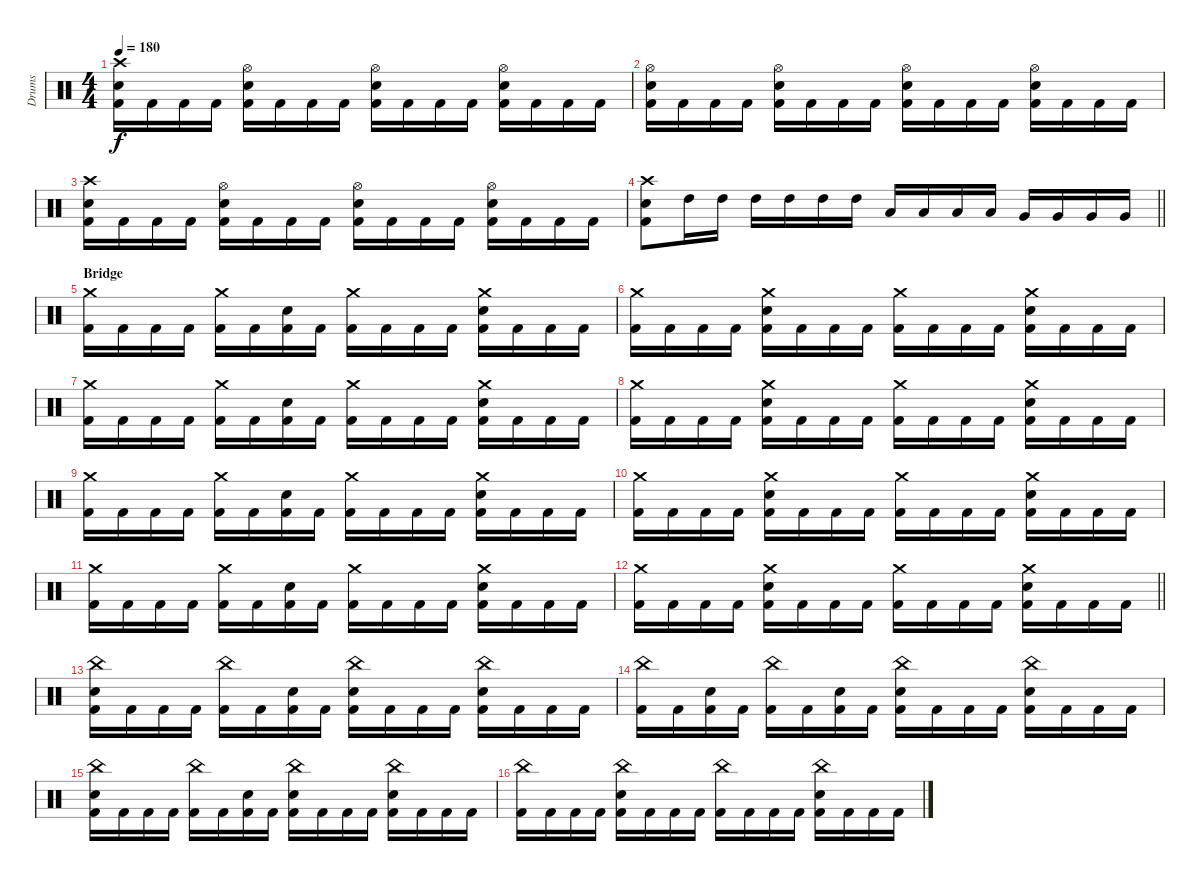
\track ("Drums" "Drums") {instrument percussion}
\staff {score}
\articulation defaults
\ts (4 4)
\tempo 180
\clef neutral
\ks c
("Crash high (hit)" "Electric Snare (hit)" "Kick (hit) 2").16{dy f} "Kick (hit) 2".16 "Kick (hit) 2".16 "Kick (hit) 2".16 ("Hi-Hat (open)" "Electric Snare (hit)" "Kick (hit) 2").16 "Kick (hit) 2".16 "Kick (hit) 2".16 "Kick (hit) 2".16 ("Hi-Hat (open)" "Electric Snare (hit)" "Kick (hit) 2").16 "Kick (hit) 2".16 "Kick (hit) 2".16 "Kick (hit) 2".16 ("Hi-Hat (open)" "Electric Snare (hit)" "Kick (hit) 2").16 "Kick (hit) 2".16 "Kick (hit) 2".16 "Kick (hit) 2".16 |
("Hi-Hat (open)" "Electric Snare (hit)" "Kick (hit) 2").16 "Kick (hit) 2".16 "Kick (hit) 2".16 "Kick (hit) 2".16 ("Hi-Hat (open)" "Electric Snare (hit)" "Kick (hit) 2").16 "Kick (hit) 2".16 "Kick (hit) 2".16 "Kick (hit) 2".16 ("Hi-Hat (open)" "Electric Snare (hit)" "Kick (hit) 2").16 "Kick (hit) 2".16 "Kick (hit) 2".16 "Kick (hit) 2".16 ("Hi-Hat (open)" "Electric Snare (hit)" "Kick (hit) 2").16 "Kick (hit) 2".16 "Kick (hit) 2".16 "Kick (hit) 2".16 |
("Crash high (hit)" "Electric Snare (hit)" "Kick (hit) 2").16 "Kick (hit) 2".16 "Kick (hit) 2".16 "Kick (hit) 2".16 ("Hi-Hat (open)" "Electric Snare (hit)" "Kick (hit) 2").16 "Kick (hit) 2".16 "Kick (hit) 2".16 "Kick (hit) 2".16 ("Hi-Hat (open)" "Electric Snare (hit)" "Kick (hit) 2").16 "Kick (hit) 2".16 "Kick (hit) 2".16 "Kick (hit) 2".16 ("Hi-Hat (open)" "Electric Snare (hit)" "Kick (hit) 2").16 "Kick (hit) 2".16 "Kick (hit) 2".16 "Kick (hit) 2".16 |
\barLineRight lightlight
("Crash high (hit)" "Electric Snare (hit)" "Kick (hit) 2").8 "High Tom (hit)".16 "High Tom (hit)".16 "High Tom (hit)".16 "High Tom (hit)".16 "High Tom (hit)".16 "High Tom (hit)".16 "Low Tom (hit)".16 "Low Tom (hit)".16 "Low Tom (hit)".16 "Low Tom (hit)".16 "Very Low Tom (hit)".16 "Very Low Tom (hit)".16 "Very Low Tom (hit)".16 "Very Low Tom (hit)".16 |
\section ("" "Bridge")
("Crash medium (hit)" "Kick (hit) 2").16 "Kick (hit) 2".16 "Kick (hit) 2".16 "Kick (hit) 2".16 ("Crash medium (hit)" "Kick (hit) 2").16 "Kick (hit) 2".16 ("Electric Snare (hit)" "Kick (hit) 2").16 "Kick (hit) 2".16 ("Crash medium (hit)" "Kick (hit) 2").16 "Kick (hit) 2".16 "Kick (hit) 2".16 "Kick (hit) 2".16 ("Crash medium (hit)" "Electric Snare (hit)" "Kick (hit) 2").16 "Kick (hit) 2".16 "Kick (hit) 2".16 "Kick (hit) 2".16 |
("Crash medium (hit)" "Kick (hit) 2").16 "Kick (hit) 2".16 "Kick (hit) 2".16 "Kick (hit) 2".16 ("Crash medium (hit)" "Electric Snare (hit)" "Kick (hit) 2").16 "Kick (hit) 2".16 "Kick (hit) 2".16 "Kick (hit) 2".16 ("Crash medium (hit)" "Kick (hit) 2").16 "Kick (hit) 2".16 "Kick (hit) 2".16 "Kick (hit) 2".16 ("Crash medium (hit)" "Electric Snare (hit)" "Kick (hit) 2").16 "Kick (hit) 2".16 "Kick (hit) 2".16 "Kick (hit) 2".16 |
("Crash medium (hit)" "Kick (hit) 2").16 "Kick (hit) 2".16 "Kick (hit) 2".16 "Kick (hit) 2".16 ("Crash medium (hit)" "Kick (hit) 2").16 "Kick (hit) 2".16 ("Electric Snare (hit)" "Kick (hit) 2").16 "Kick (hit) 2".16 ("Crash medium (hit)" "Kick (hit) 2").16 "Kick (hit) 2".16 "Kick (hit) 2".16 "Kick (hit) 2".16 ("Crash medium (hit)" "Electric Snare (hit)" "Kick (hit) 2").16 "Kick (hit) 2".16 "Kick (hit) 2".16 "Kick (hit) 2".16 |
("Crash medium (hit)" "Kick (hit) 2").16 "Kick (hit) 2".16 "Kick (hit) 2".16 "Kick (hit) 2".16 ("Crash medium (hit)" "Electric Snare (hit)" "Kick (hit) 2").16 "Kick (hit) 2".16 "Kick (hit) 2".16 "Kick (hit) 2".16 ("Crash medium (hit)" "Kick (hit) 2").16 "Kick (hit) 2".16 "Kick (hit) 2".16 "Kick (hit) 2".16 ("Crash medium (hit)" "Electric Snare (hit)" "Kick (hit) 2").16 "Kick (hit) 2".16 "Kick (hit) 2".16 "Kick (hit) 2".16 |
("Crash medium (hit)" "Kick (hit) 2").16 "Kick (hit) 2".16 "Kick (hit) 2".16 "Kick (hit) 2".16 ("Crash medium (hit)" "Kick (hit) 2").16 "Kick (hit) 2".16 ("Electric Snare (hit)" "Kick (hit) 2").16 "Kick (hit) 2".16 ("Crash medium (hit)" "Kick (hit) 2").16 "Kick (hit) 2".16 "Kick (hit) 2".16 "Kick (hit) 2".16 ("Crash medium (hit)" "Electric Snare (hit)" "Kick (hit) 2").16 "Kick (hit) 2".16 "Kick (hit) 2".16 "Kick (hit) 2".16 |
("Crash medium (hit)" "Kick (hit) 2").16 "Kick (hit) 2".16 "Kick (hit) 2".16 "Kick (hit) 2".16 ("Crash medium (hit)" "Electric Snare (hit)" "Kick (hit) 2").16 "Kick (hit) 2".16 "Kick (hit) 2".16 "Kick (hit) 2".16 ("Crash medium (hit)" "Kick (hit) 2").16 "Kick (hit) 2".16 "Kick (hit) 2".16 "Kick (hit) 2".16 ("Crash medium (hit)" "Electric Snare (hit)" "Kick (hit) 2").16 "Kick (hit) 2".16 "Kick (hit) 2".16 "Kick (hit) 2".16 |
("Crash medium (hit)" "Kick (hit) 2").16 "Kick (hit) 2".16 "Kick (hit) 2".16 "Kick (hit) 2".16 ("Crash medium (hit)" "Kick (hit) 2").16 "Kick (hit) 2".16 ("Electric Snare (hit)" "Kick (hit) 2").16 "Kick (hit) 2".16 ("Crash medium (hit)" "Kick (hit) 2").16 "Kick (hit) 2".16 "Kick (hit) 2".16 "Kick (hit) 2".16 ("Crash medium (hit)" "Electric Snare (hit)" "Kick (hit) 2").16 "Kick (hit) 2".16 "Kick (hit) 2".16 "Kick (hit) 2".16 |
\barLineRight lightlight
("Crash medium (hit)" "Kick (hit) 2").16 "Kick (hit) 2".16 "Kick (hit) 2".16 "Kick (hit) 2".16 ("Crash medium (hit)" "Electric Snare (hit)" "Kick (hit) 2").16 "Kick (hit) 2".16 "Kick (hit) 2".16 "Kick (hit) 2".16 ("Crash medium (hit)" "Kick (hit) 2").16 "Kick (hit) 2".16 "Kick (hit) 2".16 "Kick (hit) 2".16 ("Crash medium (hit)" "Electric Snare (hit)" "Kick (hit) 2").16 "Kick (hit) 2".16 "Kick (hit) 2".16 "Kick (hit) 2".16 |
\section ("" "")
("China (hit)" "Electric Snare (hit)" "Kick (hit) 2").16 "Kick (hit) 2".16 "Kick (hit) 2".16 "Kick (hit) 2".16 ("China (hit)" "Kick (hit) 2").16 "Kick (hit) 2".16 ("Electric Snare (hit)" "Kick (hit) 2").16 "Kick (hit) 2".16 ("China (hit)" "Electric Snare (hit)" "Kick (hit) 2").16 "Kick (hit) 2".16 "Kick (hit) 2".16 "Kick (hit) 2".16 ("China (hit)" "Electric Snare (hit)" "Kick (hit) 2").16 "Kick (hit) 2".16 "Kick (hit) 2".16 "Kick (hit) 2".16 |
("China (hit)" "Kick (hit) 2").16 "Kick (hit) 2".16 ("Electric Snare (hit)" "Kick (hit) 2").16 "Kick (hit) 2".16 ("China (hit)" "Kick (hit) 2").16 "Kick (hit) 2".16 ("Electric Snare (hit)" "Kick (hit) 2").16 "Kick (hit) 2".16 ("China (hit)" "Electric Snare (hit)" "Kick (hit) 2").16 "Kick (hit) 2".16 "Kick (hit) 2".16 "Kick (hit) 2".16 ("China (hit)" "Electric Snare (hit)" "Kick (hit) 2").16 "Kick (hit) 2".16 "Kick (hit) 2".16 "Kick (hit) 2".16 |
("China (hit)" "Electric Snare (hit)" "Kick (hit) 2").16 "Kick (hit) 2".16 "Kick (hit) 2".16 "Kick (hit) 2".16 ("China (hit)" "Kick (hit) 2").16 "Kick (hit) 2".16 ("Electric Snare (hit)" "Kick (hit) 2").16 "Kick (hit) 2".16 ("China (hit)" "Electric Snare (hit)" "Kick (hit) 2").16 "Kick (hit) 2".16 "Kick (hit) 2".16 "Kick (hit) 2".16 ("China (hit)" "Electric Snare (hit)" "Kick (hit) 2").16 "Kick (hit) 2".16 "Kick (hit) 2".16 "Kick (hit) 2".16 |
("China (hit)" "Kick (hit) 2").16 "Kick (hit) 2".16 "Kick (hit) 2".16 "Kick (hit) 2".16 ("China (hit)" "Electric Snare (hit)" "Kick (hit) 2").16 "Kick (hit) 2".16 "Kick (hit) 2".16 "Kick (hit) 2".16 ("China (hit)" "Kick (hit) 2").16 "Kick (hit) 2".16 "Kick (hit) 2".16 "Kick (hit) 2".16 ("China (hit)" "Electric Snare (hit)" "Kick (hit) 2").16 "Kick (hit) 2".16 "Kick (hit) 2".16 "Kick (hit) 2".16
